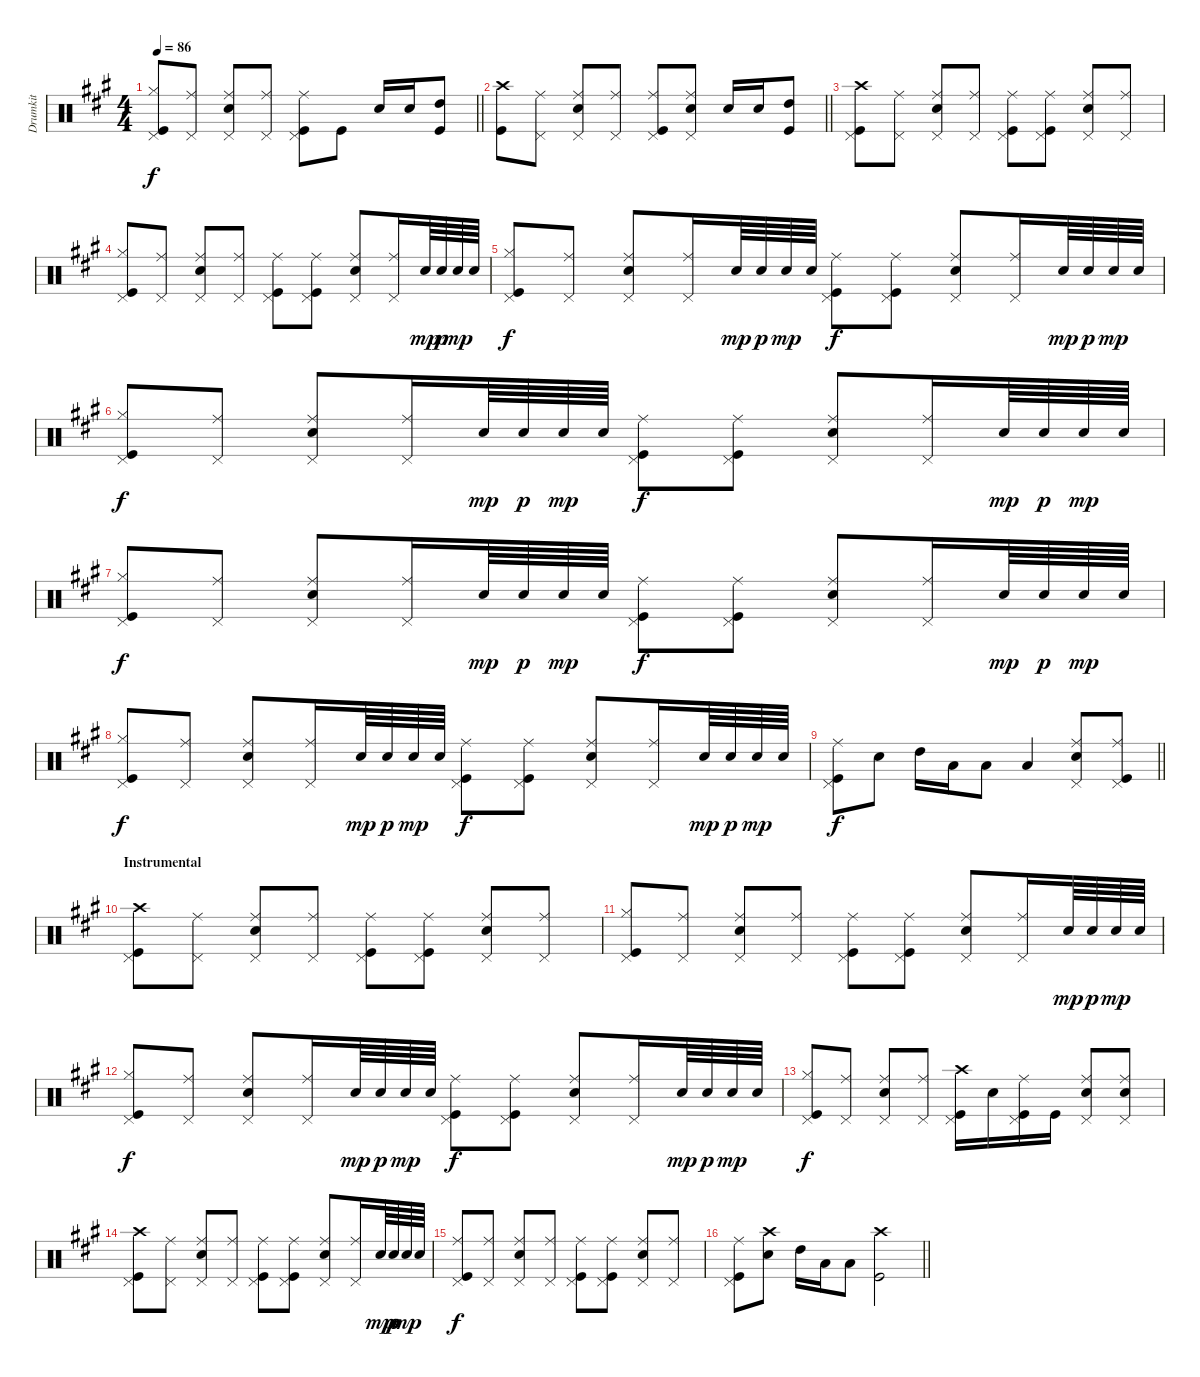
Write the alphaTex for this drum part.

\track ("Drumkit" "Drumkit") {instrument percussion}
\staff {score}
\articulation defaults
\ts (4 4)
\tempo 86
\clef neutral
\barLineRight lightlight
\ks a
("Kick (hit)" "Hi-Hat (closed)" "Pedal Hi-Hat (hit)").8{dy f} ("Ride (middle)" "Pedal Hi-Hat (hit)").8 ("Ride (middle)" "Snare (hit) 2" "Pedal Hi-Hat (hit)").8 ("Pedal Hi-Hat (hit)" "Ride (middle)").8 ("Ride (middle)" "Pedal Hi-Hat (hit)" "Kick (hit)").8 "Kick (hit)".8 "Snare (hit) 2".16 "Snare (hit) 2".16 ("Kick (hit)" "High Tom (hit)").8 |
\section ("" "")
\barLineRight lightlight
("Kick (hit)" "Crash high (hit)").8 ("Ride (middle)" "Pedal Hi-Hat (hit)").8 ("Snare (hit) 2" "Ride (middle)" "Pedal Hi-Hat (hit)").8 ("Ride (middle)" "Pedal Hi-Hat (hit)").8 ("Kick (hit)" "Ride (middle)" "Pedal Hi-Hat (hit)").8 ("Snare (hit) 2" "Ride (middle)" "Pedal Hi-Hat (hit)").8 "Snare (hit) 2".16 "Snare (hit) 2".16 ("Kick (hit)" "High Tom (hit)").8 |
("Kick (hit)" "Crash high (hit)" "Pedal Hi-Hat (hit)").8 ("Ride (middle)" "Pedal Hi-Hat (hit)").8 ("Ride (middle)" "Snare (hit) 2" "Pedal Hi-Hat (hit)").8 ("Pedal Hi-Hat (hit)" "Ride (middle)").8 ("Kick (hit)" "Ride (middle)" "Pedal Hi-Hat (hit)").8 ("Kick (hit)" "Ride (middle)" "Pedal Hi-Hat (hit)").8 ("Ride (middle)" "Snare (hit) 2" "Pedal Hi-Hat (hit)").8 ("Ride (middle)" "Pedal Hi-Hat (hit)").8 |
("Kick (hit)" "Hi-Hat (closed)" "Pedal Hi-Hat (hit)").8 ("Ride (middle)" "Pedal Hi-Hat (hit)").8 ("Ride (middle)" "Snare (hit) 2" "Pedal Hi-Hat (hit)").8 ("Pedal Hi-Hat (hit)" "Ride (middle)").8 ("Kick (hit)" "Ride (middle)" "Pedal Hi-Hat (hit)").8 ("Kick (hit)" "Ride (middle)" "Pedal Hi-Hat (hit)").8 ("Ride (middle)" "Snare (hit) 2" "Pedal Hi-Hat (hit)").8 ("Ride (middle)" "Pedal Hi-Hat (hit)").16 "Snare (hit) 2".64{dy mp} "Snare (hit) 2".64{dy p} "Snare (hit) 2".64{dy mp} "Snare (hit) 2".64 |
("Kick (hit)" "Hi-Hat (closed)" "Pedal Hi-Hat (hit)").8{dy f} ("Ride (middle)" "Pedal Hi-Hat (hit)").8 ("Ride (middle)" "Snare (hit) 2" "Pedal Hi-Hat (hit)").8 ("Pedal Hi-Hat (hit)" "Ride (middle)").16 "Snare (hit) 2".64{dy mp} "Snare (hit) 2".64{dy p} "Snare (hit) 2".64{dy mp} "Snare (hit) 2".64 ("Kick (hit)" "Ride (middle)" "Pedal Hi-Hat (hit)").8{dy f} ("Kick (hit)" "Ride (middle)" "Pedal Hi-Hat (hit)").8 ("Ride (middle)" "Snare (hit) 2" "Pedal Hi-Hat (hit)").8 ("Ride (middle)" "Pedal Hi-Hat (hit)").16 "Snare (hit) 2".64{dy mp} "Snare (hit) 2".64{dy p} "Snare (hit) 2".64{dy mp} "Snare (hit) 2".64 |
("Kick (hit)" "Hi-Hat (closed)" "Pedal Hi-Hat (hit)").8{dy f} ("Ride (middle)" "Pedal Hi-Hat (hit)").8 ("Ride (middle)" "Snare (hit) 2" "Pedal Hi-Hat (hit)").8 ("Pedal Hi-Hat (hit)" "Ride (middle)").16 "Snare (hit) 2".64{dy mp} "Snare (hit) 2".64{dy p} "Snare (hit) 2".64{dy mp} "Snare (hit) 2".64 ("Kick (hit)" "Ride (middle)" "Pedal Hi-Hat (hit)").8{dy f} ("Kick (hit)" "Ride (middle)" "Pedal Hi-Hat (hit)").8 ("Ride (middle)" "Snare (hit) 2" "Pedal Hi-Hat (hit)").8 ("Ride (middle)" "Pedal Hi-Hat (hit)").16 "Snare (hit) 2".64{dy mp} "Snare (hit) 2".64{dy p} "Snare (hit) 2".64{dy mp} "Snare (hit) 2".64 |
("Kick (hit)" "Hi-Hat (closed)" "Pedal Hi-Hat (hit)").8{dy f} ("Ride (middle)" "Pedal Hi-Hat (hit)").8 ("Ride (middle)" "Snare (hit) 2" "Pedal Hi-Hat (hit)").8 ("Pedal Hi-Hat (hit)" "Ride (middle)").16 "Snare (hit) 2".64{dy mp} "Snare (hit) 2".64{dy p} "Snare (hit) 2".64{dy mp} "Snare (hit) 2".64 ("Kick (hit)" "Ride (middle)" "Pedal Hi-Hat (hit)").8{dy f} ("Kick (hit)" "Ride (middle)" "Pedal Hi-Hat (hit)").8 ("Ride (middle)" "Snare (hit) 2" "Pedal Hi-Hat (hit)").8 ("Ride (middle)" "Pedal Hi-Hat (hit)").16 "Snare (hit) 2".64{dy mp} "Snare (hit) 2".64{dy p} "Snare (hit) 2".64{dy mp} "Snare (hit) 2".64 |
("Kick (hit)" "Hi-Hat (closed)" "Pedal Hi-Hat (hit)").8{dy f} ("Ride (middle)" "Pedal Hi-Hat (hit)").8 ("Ride (middle)" "Snare (hit) 2" "Pedal Hi-Hat (hit)").8 ("Pedal Hi-Hat (hit)" "Ride (middle)").16 "Snare (hit) 2".64{dy mp} "Snare (hit) 2".64{dy p} "Snare (hit) 2".64{dy mp} "Snare (hit) 2".64 ("Kick (hit)" "Ride (middle)" "Pedal Hi-Hat (hit)").8{dy f} ("Kick (hit)" "Ride (middle)" "Pedal Hi-Hat (hit)").8 ("Ride (middle)" "Snare (hit) 2" "Pedal Hi-Hat (hit)").8 ("Ride (middle)" "Pedal Hi-Hat (hit)").16 "Snare (hit) 2".64{dy mp} "Snare (hit) 2".64{dy p} "Snare (hit) 2".64{dy mp} "Snare (hit) 2".64 |
\barLineRight lightlight
("Kick (hit)" "Ride (middle)" "Pedal Hi-Hat (hit)").8{dy f} "Snare (hit) 2".8 "High Tom (hit)".16 "Low Tom (hit)".16 "Low Floor Tom (hit)".8 "Low Floor Tom (hit)".4 ("Snare (hit) 2" "Ride (middle)" "Pedal Hi-Hat (hit)").8 ("Kick (hit)" "Ride (middle)" "Pedal Hi-Hat (hit)").8 |
\section ("" "Instrumental")
("Kick (hit)" "Crash high (hit)" "Pedal Hi-Hat (hit)").8 ("Ride (middle)" "Pedal Hi-Hat (hit)").8 ("Ride (middle)" "Snare (hit) 2" "Pedal Hi-Hat (hit)").8 ("Pedal Hi-Hat (hit)" "Ride (middle)").8 ("Kick (hit)" "Ride (middle)" "Pedal Hi-Hat (hit)").8 ("Kick (hit)" "Ride (middle)" "Pedal Hi-Hat (hit)").8 ("Ride (middle)" "Snare (hit) 2" "Pedal Hi-Hat (hit)").8 ("Ride (middle)" "Pedal Hi-Hat (hit)").8 |
("Kick (hit)" "Hi-Hat (closed)" "Pedal Hi-Hat (hit)").8 ("Ride (middle)" "Pedal Hi-Hat (hit)").8 ("Ride (middle)" "Snare (hit) 2" "Pedal Hi-Hat (hit)").8 ("Pedal Hi-Hat (hit)" "Ride (middle)").8 ("Kick (hit)" "Ride (middle)" "Pedal Hi-Hat (hit)").8 ("Kick (hit)" "Ride (middle)" "Pedal Hi-Hat (hit)").8 ("Ride (middle)" "Snare (hit) 2" "Pedal Hi-Hat (hit)").8 ("Ride (middle)" "Pedal Hi-Hat (hit)").16 "Snare (hit) 2".64{dy mp} "Snare (hit) 2".64{dy p} "Snare (hit) 2".64{dy mp} "Snare (hit) 2".64 |
("Kick (hit)" "Hi-Hat (closed)" "Pedal Hi-Hat (hit)").8{dy f} ("Ride (middle)" "Pedal Hi-Hat (hit)").8 ("Ride (middle)" "Snare (hit) 2" "Pedal Hi-Hat (hit)").8 ("Pedal Hi-Hat (hit)" "Ride (middle)").16 "Snare (hit) 2".64{dy mp} "Snare (hit) 2".64{dy p} "Snare (hit) 2".64{dy mp} "Snare (hit) 2".64 ("Kick (hit)" "Ride (middle)" "Pedal Hi-Hat (hit)").8{dy f} ("Kick (hit)" "Ride (middle)" "Pedal Hi-Hat (hit)").8 ("Ride (middle)" "Snare (hit) 2" "Pedal Hi-Hat (hit)").8 ("Ride (middle)" "Pedal Hi-Hat (hit)").16 "Snare (hit) 2".64{dy mp} "Snare (hit) 2".64{dy p} "Snare (hit) 2".64{dy mp} "Snare (hit) 2".64 |
("Kick (hit)" "Hi-Hat (closed)" "Pedal Hi-Hat (hit)").8{dy f} ("Ride (middle)" "Pedal Hi-Hat (hit)").8 ("Ride (middle)" "Snare (hit) 2" "Pedal Hi-Hat (hit)").8 ("Pedal Hi-Hat (hit)" "Ride (middle)").8 ("Kick (hit)" "Crash high (hit)" "Pedal Hi-Hat (hit)").16 "Snare (hit) 2".16 ("Kick (hit)" "Ride (middle)" "Pedal Hi-Hat (hit)").16 "Kick (hit)".16 ("Snare (hit) 2" "Ride (middle)" "Pedal Hi-Hat (hit)").8 ("Snare (hit) 2" "Ride (middle)" "Pedal Hi-Hat (hit)").8 |
("Kick (hit)" "Crash high (hit)" "Pedal Hi-Hat (hit)").8 ("Ride (middle)" "Pedal Hi-Hat (hit)").8 ("Ride (middle)" "Snare (hit) 2" "Pedal Hi-Hat (hit)").8 ("Pedal Hi-Hat (hit)" "Ride (middle)").8 ("Kick (hit)" "Ride (middle)" "Pedal Hi-Hat (hit)").8 ("Kick (hit)" "Ride (middle)" "Pedal Hi-Hat (hit)").8 ("Ride (middle)" "Snare (hit) 2" "Pedal Hi-Hat (hit)").8 ("Ride (middle)" "Pedal Hi-Hat (hit)").16 "Snare (hit) 2".64{dy mp} "Snare (hit) 2".64{dy p} "Snare (hit) 2".64{dy mp} "Snare (hit) 2".64 |
("Kick (hit)" "Ride (middle)" "Pedal Hi-Hat (hit)").8{dy f} ("Ride (middle)" "Pedal Hi-Hat (hit)").8 ("Ride (middle)" "Snare (hit) 2" "Pedal Hi-Hat (hit)").8 ("Pedal Hi-Hat (hit)" "Ride (middle)").8 ("Kick (hit)" "Ride (middle)" "Pedal Hi-Hat (hit)").8 ("Kick (hit)" "Ride (middle)" "Pedal Hi-Hat (hit)").8 ("Ride (middle)" "Snare (hit) 2" "Pedal Hi-Hat (hit)").8 ("Ride (middle)" "Pedal Hi-Hat (hit)").8 |
\barLineRight lightlight
("Kick (hit)" "Ride (middle)" "Pedal Hi-Hat (hit)").8 ("Snare (hit) 2" "Crash high (hit)").8 "High Tom (hit)".16 "Low Tom (hit)".16 "Low Floor Tom (hit)".8 ("Kick (hit)" "Crash high (hit)").2
